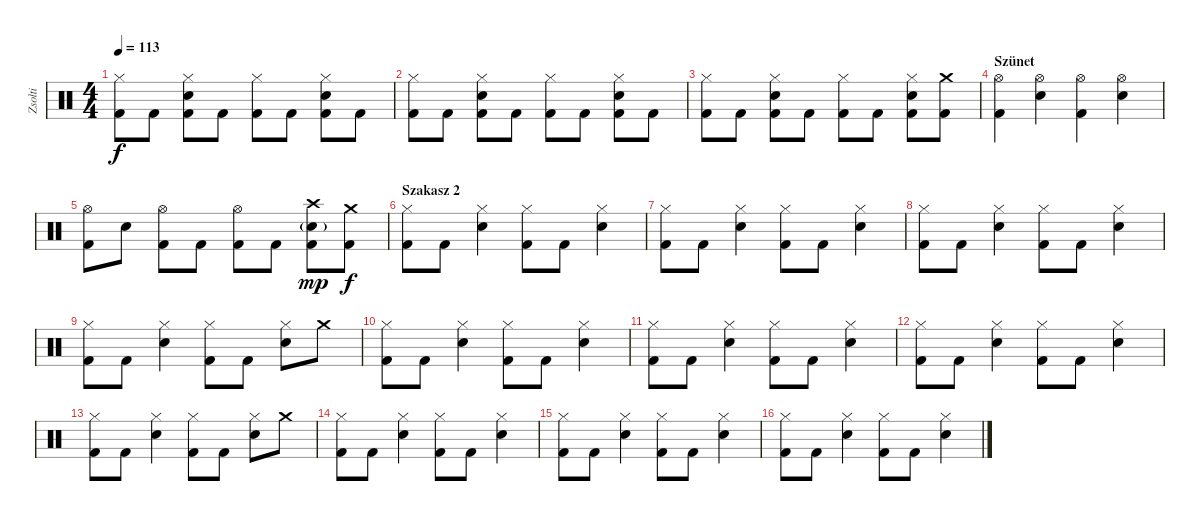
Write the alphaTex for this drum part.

\track ("Zsolti" "Zsolti") {instrument percussion}
\staff {score}
\articulation defaults
\ts (4 4)
\tempo 113
\clef neutral
\ks c
("Hi-Hat (closed)" "Kick (hit) 2").8{dy f} "Kick (hit) 2".8 ("Hi-Hat (closed)" "Snare (hit) 2" "Kick (hit) 2").8 "Kick (hit) 2".8 ("Hi-Hat (closed)" "Kick (hit) 2").8 "Kick (hit) 2".8 ("Hi-Hat (closed)" "Snare (hit) 2" "Kick (hit) 2").8 "Kick (hit) 2".8 |
("Hi-Hat (closed)" "Kick (hit) 2").8 "Kick (hit) 2".8 ("Hi-Hat (closed)" "Snare (hit) 2" "Kick (hit) 2").8 "Kick (hit) 2".8 ("Hi-Hat (closed)" "Kick (hit) 2").8 "Kick (hit) 2".8 ("Hi-Hat (closed)" "Snare (hit) 2" "Kick (hit) 2").8 "Kick (hit) 2".8 |
("Hi-Hat (closed)" "Kick (hit) 2").8 "Kick (hit) 2".8 ("Hi-Hat (closed)" "Snare (hit) 2" "Kick (hit) 2").8 "Kick (hit) 2".8 ("Hi-Hat (closed)" "Kick (hit) 2").8 "Kick (hit) 2".8 ("Hi-Hat (closed)" "Snare (hit) 2" "Kick (hit) 2").8 ("Crash medium (hit)" "Kick (hit) 2").8 |
\section ("" "Szünet")
("Hi-Hat (open)" "Kick (hit) 2").4 ("Hi-Hat (open)" "Snare (hit) 2").4 ("Hi-Hat (open)" "Kick (hit) 2").4 ("Hi-Hat (open)" "Snare (hit) 2").4 |
("Hi-Hat (open)" "Kick (hit) 2").8 "Snare (hit) 2".8 ("Hi-Hat (open)" "Kick (hit) 2").8 "Kick (hit) 2".8 ("Hi-Hat (open)" "Kick (hit) 2").8 "Kick (hit) 2".8 ("Crash high (hit)" "Snare (hit) 2"{g} "Kick (hit) 2").8{dy mp} ("Crash medium (hit)" "Kick (hit) 2").8{dy f} |
\section ("" "Szakasz 2")
("Hi-Hat (closed)" "Kick (hit) 2").8 "Kick (hit) 2".8 ("Hi-Hat (closed)" "Snare (hit) 2").4 ("Hi-Hat (closed)" "Kick (hit) 2").8 "Kick (hit) 2".8 ("Hi-Hat (closed)" "Snare (hit) 2").4 |
("Hi-Hat (closed)" "Kick (hit) 2").8 "Kick (hit) 2".8 ("Hi-Hat (closed)" "Snare (hit) 2").4 ("Hi-Hat (closed)" "Kick (hit) 2").8 "Kick (hit) 2".8 ("Hi-Hat (closed)" "Snare (hit) 2").4 |
("Hi-Hat (closed)" "Kick (hit) 2").8 "Kick (hit) 2".8 ("Hi-Hat (closed)" "Snare (hit) 2").4 ("Hi-Hat (closed)" "Kick (hit) 2").8 "Kick (hit) 2".8 ("Hi-Hat (closed)" "Snare (hit) 2").4 |
("Hi-Hat (closed)" "Kick (hit) 2").8 "Kick (hit) 2".8 ("Hi-Hat (closed)" "Snare (hit) 2").4 ("Hi-Hat (closed)" "Kick (hit) 2").8 "Kick (hit) 2".8 ("Hi-Hat (closed)" "Snare (hit) 2").8 "Crash medium (hit)".8 |
("Hi-Hat (closed)" "Kick (hit) 2").8 "Kick (hit) 2".8 ("Hi-Hat (closed)" "Snare (hit) 2").4 ("Hi-Hat (closed)" "Kick (hit) 2").8 "Kick (hit) 2".8 ("Hi-Hat (closed)" "Snare (hit) 2").4 |
("Hi-Hat (closed)" "Kick (hit) 2").8 "Kick (hit) 2".8 ("Hi-Hat (closed)" "Snare (hit) 2").4 ("Hi-Hat (closed)" "Kick (hit) 2").8 "Kick (hit) 2".8 ("Hi-Hat (closed)" "Snare (hit) 2").4 |
("Hi-Hat (closed)" "Kick (hit) 2").8 "Kick (hit) 2".8 ("Hi-Hat (closed)" "Snare (hit) 2").4 ("Hi-Hat (closed)" "Kick (hit) 2").8 "Kick (hit) 2".8 ("Hi-Hat (closed)" "Snare (hit) 2").4 |
("Hi-Hat (closed)" "Kick (hit) 2").8 "Kick (hit) 2".8 ("Hi-Hat (closed)" "Snare (hit) 2").4 ("Hi-Hat (closed)" "Kick (hit) 2").8 "Kick (hit) 2".8 ("Hi-Hat (closed)" "Snare (hit) 2").8 "Crash medium (hit)".8 |
("Hi-Hat (closed)" "Kick (hit) 2").8 "Kick (hit) 2".8 ("Hi-Hat (closed)" "Snare (hit) 2").4 ("Hi-Hat (closed)" "Kick (hit) 2").8 "Kick (hit) 2".8 ("Hi-Hat (closed)" "Snare (hit) 2").4 |
("Hi-Hat (closed)" "Kick (hit) 2").8 "Kick (hit) 2".8 ("Hi-Hat (closed)" "Snare (hit) 2").4 ("Hi-Hat (closed)" "Kick (hit) 2").8 "Kick (hit) 2".8 ("Hi-Hat (closed)" "Snare (hit) 2").4 |
("Hi-Hat (closed)" "Kick (hit) 2").8 "Kick (hit) 2".8 ("Hi-Hat (closed)" "Snare (hit) 2").4 ("Hi-Hat (closed)" "Kick (hit) 2").8 "Kick (hit) 2".8 ("Hi-Hat (closed)" "Snare (hit) 2").4
